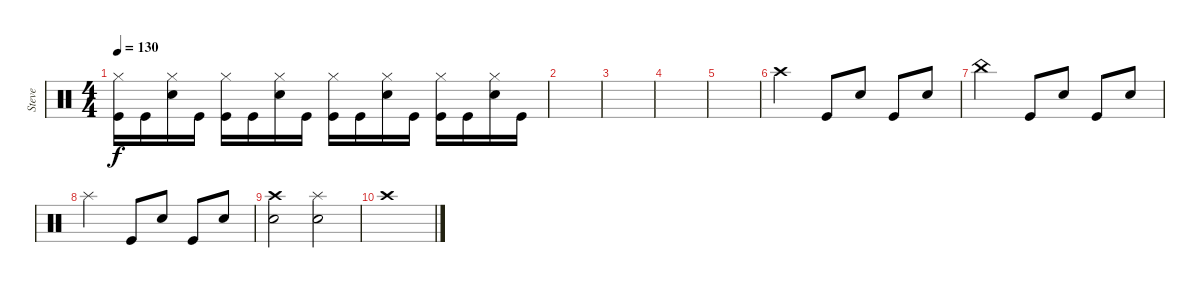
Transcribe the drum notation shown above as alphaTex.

\track ("Steve" "Steve") {instrument percussion}
\staff {score}
\articulation defaults
\ts (4 4)
\tempo 130
\clef neutral
\ks c
("Hi-Hat (closed)" "Kick (hit)").16{dy f} "Kick (hit)".16 ("Hi-Hat (closed)" "Snare (hit) 2").16 "Kick (hit)".16 ("Hi-Hat (closed)" "Kick (hit)").16 "Kick (hit)".16 ("Hi-Hat (closed)" "Snare (hit) 2").16 "Kick (hit)".16 ("Hi-Hat (closed)" "Kick (hit)").16 "Kick (hit)".16 ("Hi-Hat (closed)" "Snare (hit) 2").16 "Kick (hit)".16 ("Hi-Hat (closed)" "Kick (hit)").16 "Kick (hit)".16 ("Hi-Hat (closed)" "Snare (hit) 2").16 "Kick (hit)".16 |
|
|
|
|
"Crash high (hit)".2 "Kick (hit)".8 "Snare (hit) 2".8 "Kick (hit)".8 "Snare (hit) 2".8 |
"China (hit)".2 "Kick (hit)".8 "Snare (hit) 2".8 "Kick (hit)".8 "Snare (hit) 2".8 |
"Splash (hit)".2 "Kick (hit)".8 "Snare (hit) 2".8 "Kick (hit)".8 "Snare (hit) 2".8 |
("Crash high (hit)" "Snare (hit) 2").2 ("Splash (hit)" "Snare (hit) 2").2 |
"Crash high (hit)".1
